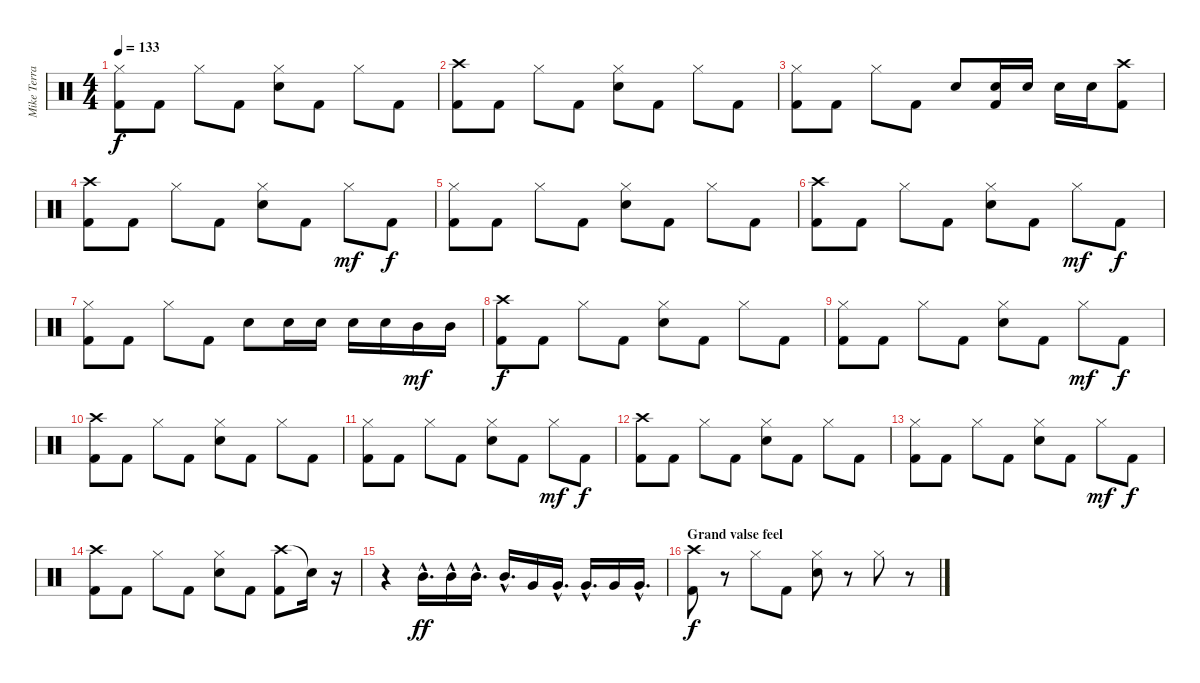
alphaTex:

\track ("Mike Terrana" "Mike Terra") {instrument percussion}
\staff {score}
\articulation defaults
\ts (4 4)
\tempo 133
\clef neutral
\ks c
("Hi-Hat (closed)" "Kick (hit) 2").8{dy f} "Kick (hit) 2".8 "Hi-Hat (closed)".8 "Kick (hit) 2".8 ("Hi-Hat (closed)" "Snare (hit) 2").8 "Kick (hit) 2".8 "Hi-Hat (closed)".8 "Kick (hit) 2".8 |
("Crash high (hit)" "Kick (hit) 2").8 "Kick (hit) 2".8 "Hi-Hat (closed)".8 "Kick (hit) 2".8 ("Hi-Hat (closed)" "Snare (hit) 2").8 "Kick (hit) 2".8 "Hi-Hat (closed)".8 "Kick (hit) 2".8 |
("Hi-Hat (closed)" "Kick (hit) 2").8 "Kick (hit) 2".8 "Hi-Hat (closed)".8 "Kick (hit) 2".8 "Snare (hit) 2".8 ("Snare (hit) 2" "Kick (hit) 2").16 "Snare (hit) 2".16 "Snare (hit) 2".16 "Snare (hit) 2".16 ("Crash high (hit)" "Kick (hit) 2").8 |
("Crash high (hit)" "Kick (hit) 2").8 "Kick (hit) 2".8 "Hi-Hat (closed)".8 "Kick (hit) 2".8 ("Hi-Hat (closed)" "Snare (hit) 2").8 "Kick (hit) 2".8 "Hi-Hat (closed)".8{dy mf} "Kick (hit) 2".8{dy f} |
("Hi-Hat (closed)" "Kick (hit) 2").8 "Kick (hit) 2".8 "Hi-Hat (closed)".8 "Kick (hit) 2".8 ("Hi-Hat (closed)" "Snare (hit) 2").8 "Kick (hit) 2".8 "Hi-Hat (closed)".8 "Kick (hit) 2".8 |
("Crash high (hit)" "Kick (hit) 2").8 "Kick (hit) 2".8 "Hi-Hat (closed)".8 "Kick (hit) 2".8 ("Hi-Hat (closed)" "Snare (hit) 2").8 "Kick (hit) 2".8 "Hi-Hat (closed)".8{dy mf} "Kick (hit) 2".8{dy f} |
("Hi-Hat (closed)" "Kick (hit) 2").8 "Kick (hit) 2".8 "Hi-Hat (closed)".8 "Kick (hit) 2".8 "Snare (hit) 2".8 "Snare (hit) 2".16 "Snare (hit) 2".16 "Snare (hit) 2".16 "Snare (hit) 2".16 "Mid Tom (hit)".16{dy mf} "Mid Tom (hit)".16 |
("Crash high (hit)" "Kick (hit) 2").8{dy f} "Kick (hit) 2".8 "Hi-Hat (closed)".8 "Kick (hit) 2".8 ("Hi-Hat (closed)" "Snare (hit) 2").8 "Kick (hit) 2".8 "Hi-Hat (closed)".8 "Kick (hit) 2".8 |
("Hi-Hat (closed)" "Kick (hit) 2").8 "Kick (hit) 2".8 "Hi-Hat (closed)".8 "Kick (hit) 2".8 ("Hi-Hat (closed)" "Snare (hit) 2").8 "Kick (hit) 2".8 "Hi-Hat (closed)".8{dy mf} "Kick (hit) 2".8{dy f} |
("Crash high (hit)" "Kick (hit) 2").8 "Kick (hit) 2".8 "Hi-Hat (closed)".8 "Kick (hit) 2".8 ("Hi-Hat (closed)" "Snare (hit) 2").8 "Kick (hit) 2".8 "Hi-Hat (closed)".8 "Kick (hit) 2".8 |
("Hi-Hat (closed)" "Kick (hit) 2").8 "Kick (hit) 2".8 "Hi-Hat (closed)".8 "Kick (hit) 2".8 ("Hi-Hat (closed)" "Snare (hit) 2").8 "Kick (hit) 2".8 "Hi-Hat (closed)".8{dy mf} "Kick (hit) 2".8{dy f} |
("Crash high (hit)" "Kick (hit) 2").8 "Kick (hit) 2".8 "Hi-Hat (closed)".8 "Kick (hit) 2".8 ("Hi-Hat (closed)" "Snare (hit) 2").8 "Kick (hit) 2".8 "Hi-Hat (closed)".8 "Kick (hit) 2".8 |
("Hi-Hat (closed)" "Kick (hit) 2").8 "Kick (hit) 2".8 "Hi-Hat (closed)".8 "Kick (hit) 2".8 ("Hi-Hat (closed)" "Snare (hit) 2").8 "Kick (hit) 2".8 "Hi-Hat (closed)".8{dy mf} "Kick (hit) 2".8{dy f} |
("Crash high (hit)" "Kick (hit) 2").8 "Kick (hit) 2".8 "Hi-Hat (closed)".8 "Kick (hit) 2".8 ("Hi-Hat (closed)" "Snare (hit) 2").8 "Kick (hit) 2".8 ("Crash high (hit)" "Kick (hit) 2").8 "Snare (hit)"{t}.16 r.16 |
r.4 "Mid Tom (hit)"{hac}.16{d dy ff} "Mid Tom (hit)"{hac}.16 "Mid Tom (hit)"{hac}.16{d} "Mid Tom (hit)"{hac}.16{d} "Very Low Tom (hit)".16 "Very Low Tom (hit)"{hac}.16{d} "Very Low Tom (hit)"{hac}.16{d} "Very Low Tom (hit)".16 "Very Low Tom (hit)"{hac}.16{d} |
\section ("" "Grand valse feel")
("Crash high (hit)" "Kick (hit) 2").8{dy f} r.8 "Hi-Hat (closed)".8 "Kick (hit) 2".8 ("Hi-Hat (closed)" "Snare (hit) 2").8 r.8 "Hi-Hat (closed)".8 r.8
